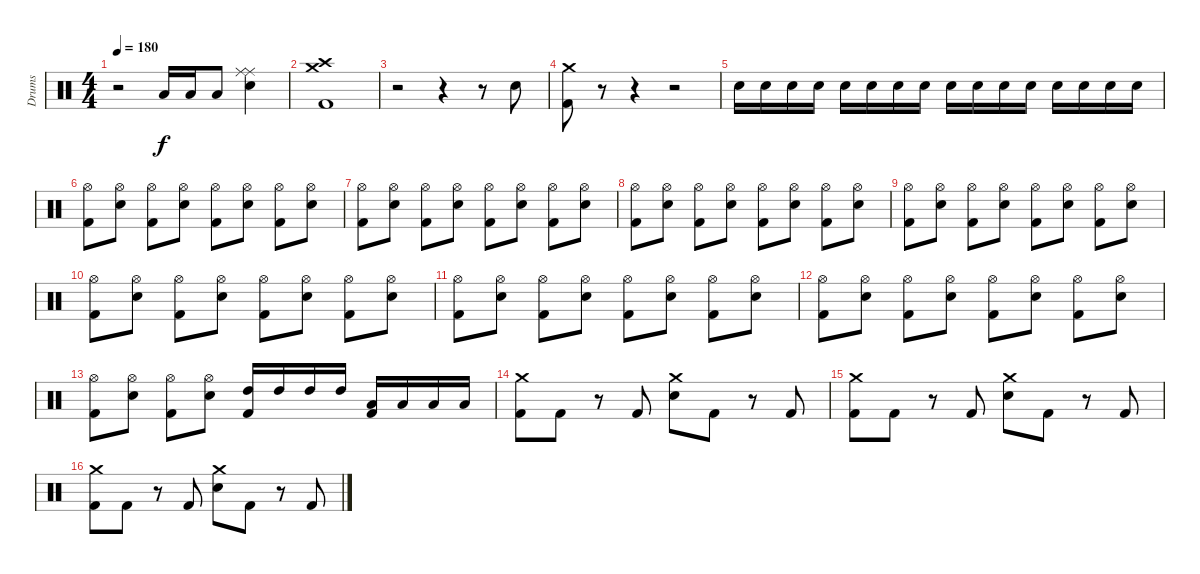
\track ("Drums" "Drums") {instrument percussion}
\staff {score}
\articulation defaults
\ts (4 4)
\tempo 180
\clef neutral
\ks c
r.2{dy f} "Low Tom (hit)".16 "Low Tom (hit)".16 "Low Tom (hit)".8 ("Ride (middle)" "Ride (middle)" "Snare (hit) 2").4 |
("Crash high (hit)" "Crash medium (hit)" "Kick (hit) 2").1 |
r.2 r.4 r.8 "Snare (hit) 2".8 |
("Crash medium (hit)" "Kick (hit) 2").8 r.8 r.4 r.2 |
"Snare (hit) 2".16 "Snare (hit) 2".16 "Snare (hit) 2".16 "Snare (hit) 2".16 "Snare (hit) 2".16 "Snare (hit) 2".16 "Snare (hit) 2".16 "Snare (hit) 2".16 "Snare (hit) 2".16 "Snare (hit) 2".16 "Snare (hit) 2".16 "Snare (hit) 2".16 "Snare (hit) 2".16 "Snare (hit) 2".16 "Snare (hit) 2".16 "Snare (hit) 2".16 |
("Hi-Hat (open)" "Kick (hit) 2").8 ("Hi-Hat (open)" "Snare (hit) 2").8 ("Hi-Hat (open)" "Kick (hit) 2").8 ("Hi-Hat (open)" "Snare (hit) 2").8 ("Hi-Hat (open)" "Kick (hit) 2").8 ("Hi-Hat (open)" "Snare (hit) 2").8 ("Hi-Hat (open)" "Kick (hit) 2").8 ("Hi-Hat (open)" "Snare (hit) 2").8 |
("Hi-Hat (open)" "Kick (hit) 2").8 ("Hi-Hat (open)" "Snare (hit) 2").8 ("Hi-Hat (open)" "Kick (hit) 2").8 ("Hi-Hat (open)" "Snare (hit) 2").8 ("Hi-Hat (open)" "Kick (hit) 2").8 ("Hi-Hat (open)" "Snare (hit) 2").8 ("Hi-Hat (open)" "Kick (hit) 2").8 ("Hi-Hat (open)" "Snare (hit) 2").8 |
("Hi-Hat (open)" "Kick (hit) 2").8 ("Hi-Hat (open)" "Snare (hit) 2").8 ("Hi-Hat (open)" "Kick (hit) 2").8 ("Hi-Hat (open)" "Snare (hit) 2").8 ("Hi-Hat (open)" "Kick (hit) 2").8 ("Hi-Hat (open)" "Snare (hit) 2").8 ("Hi-Hat (open)" "Kick (hit) 2").8 ("Hi-Hat (open)" "Snare (hit) 2").8 |
("Hi-Hat (open)" "Kick (hit) 2").8 ("Hi-Hat (open)" "Snare (hit) 2").8 ("Hi-Hat (open)" "Kick (hit) 2").8 ("Hi-Hat (open)" "Snare (hit) 2").8 ("Hi-Hat (open)" "Kick (hit) 2").8 ("Hi-Hat (open)" "Snare (hit) 2").8 ("Hi-Hat (open)" "Kick (hit) 2").8 ("Hi-Hat (open)" "Snare (hit) 2").8 |
("Hi-Hat (open)" "Kick (hit) 2").8 ("Hi-Hat (open)" "Snare (hit) 2").8 ("Hi-Hat (open)" "Kick (hit) 2").8 ("Hi-Hat (open)" "Snare (hit) 2").8 ("Hi-Hat (open)" "Kick (hit) 2").8 ("Hi-Hat (open)" "Snare (hit) 2").8 ("Hi-Hat (open)" "Kick (hit) 2").8 ("Hi-Hat (open)" "Snare (hit) 2").8 |
("Hi-Hat (open)" "Kick (hit) 2").8 ("Hi-Hat (open)" "Snare (hit) 2").8 ("Hi-Hat (open)" "Kick (hit) 2").8 ("Hi-Hat (open)" "Snare (hit) 2").8 ("Hi-Hat (open)" "Kick (hit) 2").8 ("Hi-Hat (open)" "Snare (hit) 2").8 ("Hi-Hat (open)" "Kick (hit) 2").8 ("Hi-Hat (open)" "Snare (hit) 2").8 |
("Hi-Hat (open)" "Kick (hit) 2").8 ("Hi-Hat (open)" "Snare (hit) 2").8 ("Hi-Hat (open)" "Kick (hit) 2").8 ("Hi-Hat (open)" "Snare (hit) 2").8 ("Hi-Hat (open)" "Kick (hit) 2").8 ("Hi-Hat (open)" "Snare (hit) 2").8 ("Hi-Hat (open)" "Kick (hit) 2").8 ("Hi-Hat (open)" "Snare (hit) 2").8 |
("Hi-Hat (open)" "Kick (hit) 2").8 ("Hi-Hat (open)" "Snare (hit) 2").8 ("Hi-Hat (open)" "Kick (hit) 2").8 ("Hi-Hat (open)" "Snare (hit) 2").8 ("High Tom (hit)" "Kick (hit) 2").16 "High Tom (hit)".16 "High Tom (hit)".16 "High Tom (hit)".16 ("Low Tom (hit)" "Kick (hit) 2").16 "Low Tom (hit)".16 "Low Tom (hit)".16 "Low Tom (hit)".16 |
("Crash medium (hit)" "Kick (hit) 2").8 "Kick (hit) 2".8 r.8 "Kick (hit) 2".8 ("Crash medium (hit)" "Snare (hit) 2").8 "Kick (hit) 2".8 r.8 "Kick (hit) 2".8 |
("Crash medium (hit)" "Kick (hit) 2").8 "Kick (hit) 2".8 r.8 "Kick (hit) 2".8 ("Crash medium (hit)" "Snare (hit) 2").8 "Kick (hit) 2".8 r.8 "Kick (hit) 2".8 |
("Crash medium (hit)" "Kick (hit) 2").8 "Kick (hit) 2".8 r.8 "Kick (hit) 2".8 ("Crash medium (hit)" "Snare (hit) 2").8 "Kick (hit) 2".8 r.8 "Kick (hit) 2".8
